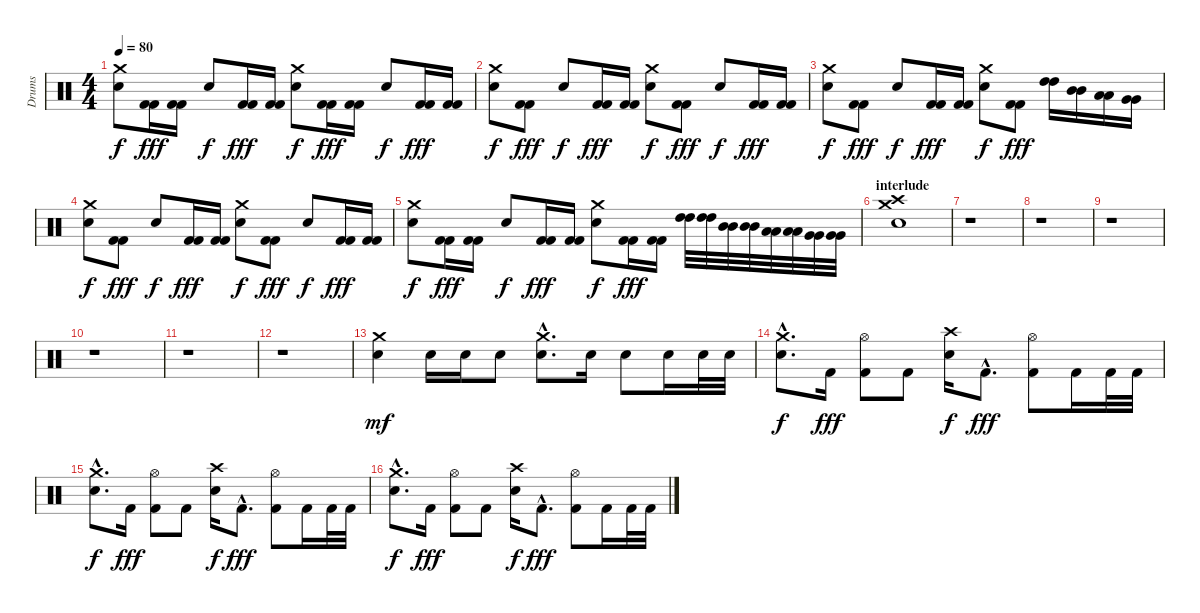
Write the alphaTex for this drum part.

\track ("Drums" "Drums") {instrument percussion}
\staff {score}
\articulation defaults
\ts (4 4)
\tempo 80
\clef neutral
\ks c
("Electric Snare (hit)" "Crash medium (hit)").8{dy f} ("Kick (hit) 2" "Kick (hit) 2").16{dy fff} ("Kick (hit) 2" "Kick (hit) 2").16 "Electric Snare (hit)".8{dy f} ("Kick (hit) 2" "Kick (hit) 2").16{dy fff} ("Kick (hit) 2" "Kick (hit) 2").16 ("Electric Snare (hit)" "Crash medium (hit)").8{dy f} ("Kick (hit) 2" "Kick (hit) 2").16{dy fff} ("Kick (hit) 2" "Kick (hit) 2").16 "Electric Snare (hit)".8{dy f} ("Kick (hit) 2" "Kick (hit) 2").16{dy fff} ("Kick (hit) 2" "Kick (hit) 2").16 |
("Electric Snare (hit)" "Crash medium (hit)").8{dy f} ("Kick (hit) 2" "Kick (hit) 2").8{dy fff} "Electric Snare (hit)".8{dy f} ("Kick (hit) 2" "Kick (hit) 2").16{dy fff} ("Kick (hit) 2" "Kick (hit) 2").16 ("Electric Snare (hit)" "Crash medium (hit)").8{dy f} ("Kick (hit) 2" "Kick (hit) 2").8{dy fff} "Electric Snare (hit)".8{dy f} ("Kick (hit) 2" "Kick (hit) 2").16{dy fff} ("Kick (hit) 2" "Kick (hit) 2").16 |
("Electric Snare (hit)" "Crash medium (hit)").8{dy f} ("Kick (hit) 2" "Kick (hit) 2").8{dy fff} "Electric Snare (hit)".8{dy f} ("Kick (hit) 2" "Kick (hit) 2").16{dy fff} ("Kick (hit) 2" "Kick (hit) 2").16 ("Electric Snare (hit)" "Crash medium (hit)").8{dy f} ("Kick (hit) 2" "Kick (hit) 2").8{dy fff} ("High Tom (hit)" "High Tom (hit)").16 ("Mid Tom (hit)" "Mid Tom (hit)").16 ("Low Tom (hit)" "Low Tom (hit)").16 ("Very Low Tom (hit)" "Very Low Tom (hit)").16 |
("Electric Snare (hit)" "Crash medium (hit)").8{dy f} ("Kick (hit) 2" "Kick (hit) 2").8{dy fff} "Electric Snare (hit)".8{dy f} ("Kick (hit) 2" "Kick (hit) 2").16{dy fff} ("Kick (hit) 2" "Kick (hit) 2").16 ("Electric Snare (hit)" "Crash medium (hit)").8{dy f} ("Kick (hit) 2" "Kick (hit) 2").8{dy fff} "Electric Snare (hit)".8{dy f} ("Kick (hit) 2" "Kick (hit) 2").16{dy fff} ("Kick (hit) 2" "Kick (hit) 2").16 |
("Electric Snare (hit)" "Crash medium (hit)").8{dy f} ("Kick (hit) 2" "Kick (hit) 2").16{dy fff} ("Kick (hit) 2" "Kick (hit) 2").16 "Electric Snare (hit)".8{dy f} ("Kick (hit) 2" "Kick (hit) 2").16{dy fff} ("Kick (hit) 2" "Kick (hit) 2").16 ("Electric Snare (hit)" "Crash medium (hit)").8{dy f} ("Kick (hit) 2" "Kick (hit) 2").16{dy fff} ("Kick (hit) 2" "Kick (hit) 2").16 ("High Tom (hit)" "High Tom (hit)").32 ("High Tom (hit)" "High Tom (hit)").32 ("Mid Tom (hit)" "Mid Tom (hit)").32 ("Mid Tom (hit)" "Mid Tom (hit)").32 ("Low Tom (hit)" "Low Tom (hit)").32 ("Low Tom (hit)" "Low Tom (hit)").32 ("Very Low Tom (hit)" "Very Low Tom (hit)").32 ("Very Low Tom (hit)" "Very Low Tom (hit)").32 |
\section ("" "interlude")
("Crash high (hit)" "Crash medium (hit)" "Electric Snare (hit)").1 |
r.1 |
r.1 |
r.1 |
r.1 |
r.1 |
r.1 |
("Crash medium (hit)" "Electric Snare (hit)").4{dy mf} "Electric Snare (hit)".16 "Electric Snare (hit)".16 "Electric Snare (hit)".8 ("Crash medium (hit)"{hac} "Electric Snare (hit)"{hac}).8{d} "Electric Snare (hit)".16 "Electric Snare (hit)".8 "Electric Snare (hit)".16 "Electric Snare (hit)".32 "Electric Snare (hit)".32 |
("Electric Snare (hit)"{hac} "Crash medium (hit)"{hac}).8{d dy f} "Kick (hit) 2".16{dy fff} ("Hi-Hat (open)" "Kick (hit) 2").8 "Kick (hit) 2".8 ("Crash high (hit)" "Electric Snare (hit)").16{dy f} "Kick (hit) 2"{hac}.8{d dy fff} ("Hi-Hat (open)" "Kick (hit) 2").8 "Kick (hit) 2".16 "Kick (hit) 2".32 "Kick (hit) 2".32 |
("Electric Snare (hit)"{hac} "Crash medium (hit)"{hac}).8{d dy f} "Kick (hit) 2".16{dy fff} ("Hi-Hat (open)" "Kick (hit) 2").8 "Kick (hit) 2".8 ("Crash high (hit)" "Electric Snare (hit)").16{dy f} "Kick (hit) 2"{hac}.8{d dy fff} ("Hi-Hat (open)" "Kick (hit) 2").8 "Kick (hit) 2".16 "Kick (hit) 2".32 "Kick (hit) 2".32 |
("Electric Snare (hit)"{hac} "Crash medium (hit)"{hac}).8{d dy f} "Kick (hit) 2".16{dy fff} ("Hi-Hat (open)" "Kick (hit) 2").8 "Kick (hit) 2".8 ("Crash high (hit)" "Electric Snare (hit)").16{dy f} "Kick (hit) 2"{hac}.8{d dy fff} ("Hi-Hat (open)" "Kick (hit) 2").8 "Kick (hit) 2".16 "Kick (hit) 2".32 "Kick (hit) 2".32
